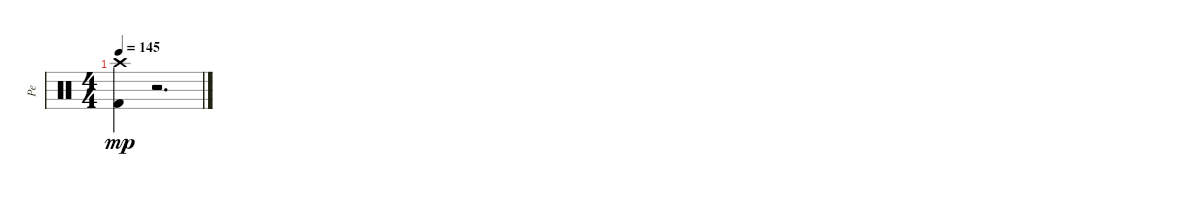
\track ("Pe" "Pe") {instrument percussion}
\staff {score}
\articulation defaults
\ts (4 4)
\tempo 145
\clef neutral
\ks c
("Kick (hit) 2" "Crash high (hit)").4{dy mp} r.2{d}
